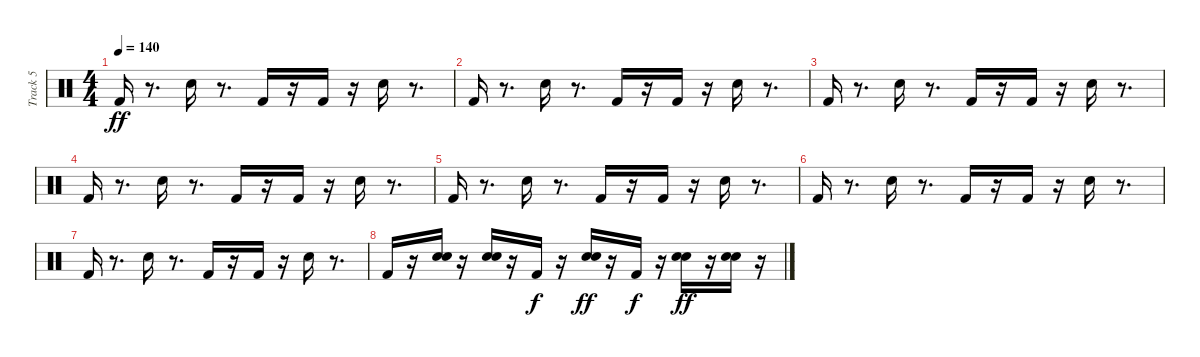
\track ("Track 5" "Track 5") {instrument percussion}
\staff {score}
\articulation defaults
\ts (4 4)
\tempo 140
\clef neutral
\ks c "Kick (hit) 2".16{dy ff}
r.8{d} "Snare (hit) 2".16 r.8{d} "Kick (hit) 2".16 r.16 "Kick (hit) 2".16 r.16 "Snare (hit) 2".16 r.8{d} |
"Kick (hit) 2".16 r.8{d} "Snare (hit) 2".16 r.8{d} "Kick (hit) 2".16 r.16 "Kick (hit) 2".16 r.16 "Snare (hit) 2".16 r.8{d} |
"Kick (hit) 2".16 r.8{d} "Snare (hit) 2".16 r.8{d} "Kick (hit) 2".16 r.16 "Kick (hit) 2".16 r.16 "Snare (hit) 2".16 r.8{d} |
"Kick (hit) 2".16 r.8{d} "Snare (hit) 2".16 r.8{d} "Kick (hit) 2".16 r.16 "Kick (hit) 2".16 r.16 "Snare (hit) 2".16 r.8{d} |
"Kick (hit) 2".16 r.8{d} "Snare (hit) 2".16 r.8{d} "Kick (hit) 2".16 r.16 "Kick (hit) 2".16 r.16 "Snare (hit) 2".16 r.8{d} |
"Kick (hit) 2".16 r.8{d} "Snare (hit) 2".16 r.8{d} "Kick (hit) 2".16 r.16 "Kick (hit) 2".16 r.16 "Snare (hit) 2".16 r.8{d} |
"Kick (hit) 2".16 r.8{d} "Snare (hit) 2".16 r.8{d} "Kick (hit) 2".16 r.16 "Kick (hit) 2".16 r.16 "Snare (hit) 2".16 r.8{d} |
"Kick (hit) 2".16 r.16 ("Snare (hit) 2" "Hand Clap (hit)").16 r.16 ("Snare (hit) 2" "Hand Clap (hit)").16 r.16 "Kick (hit) 2".16{dy f} r.16 ("Snare (hit) 2" "Hand Clap (hit)").16{dy ff} r.16 "Kick (hit) 2".16{dy f} r.16 ("Snare (hit) 2" "Hand Clap (hit)").16{dy ff} r.16 ("Snare (hit) 2" "Hand Clap (hit)").16 r.16
